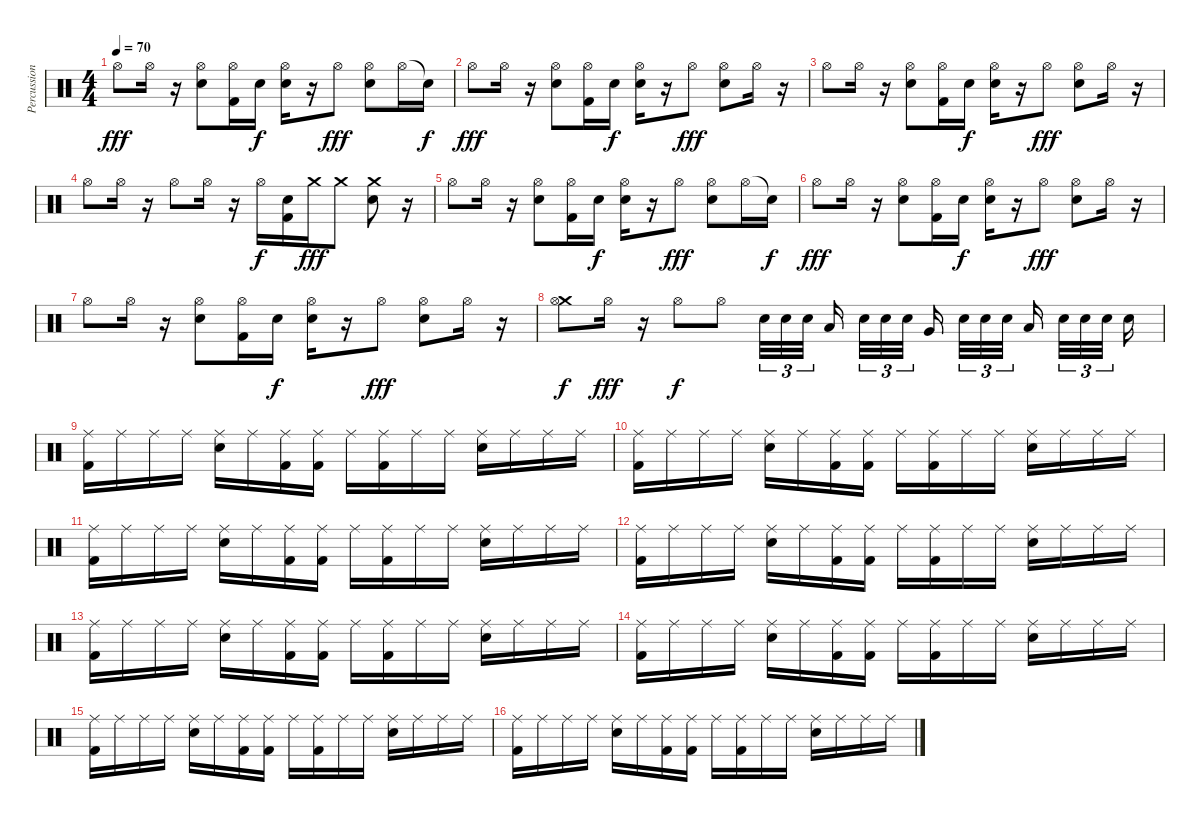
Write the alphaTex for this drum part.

\track ("Percussion" "Percussion") {instrument percussion}
\staff {score}
\articulation defaults
\ts (4 4)
\tempo 70
\clef neutral
\ks c "Hi-Hat (open)".8{dy fff} "Hi-Hat (open)".16
r.16 ("Hi-Hat (open)" "Electric Snare (hit)").8 ("Hi-Hat (open)" "Kick (hit) 2").16 "Electric Snare (hit)".16{dy f} ("Hi-Hat (open)" "Electric Snare (hit)").16 r.16 "Hi-Hat (open)".8{dy fff} ("Hi-Hat (open)" "Electric Snare (hit)").8 "Hi-Hat (open)".16 "Snare (hit)"{t}.16{dy f} |
"Hi-Hat (open)".8{dy fff} "Hi-Hat (open)".16 r.16 ("Hi-Hat (open)" "Electric Snare (hit)").8 ("Hi-Hat (open)" "Kick (hit) 2").16 "Electric Snare (hit)".16{dy f} ("Hi-Hat (open)" "Electric Snare (hit)").16 r.16 "Hi-Hat (open)".8{dy fff} ("Hi-Hat (open)" "Electric Snare (hit)").8 "Hi-Hat (open)".16 r.16 |
"Hi-Hat (open)".8 "Hi-Hat (open)".16 r.16 ("Hi-Hat (open)" "Electric Snare (hit)").8 ("Hi-Hat (open)" "Kick (hit) 2").16 "Electric Snare (hit)".16{dy f} ("Hi-Hat (open)" "Electric Snare (hit)").16 r.16 "Hi-Hat (open)".8{dy fff} ("Hi-Hat (open)" "Electric Snare (hit)").8 "Hi-Hat (open)".16 r.16 |
"Hi-Hat (open)".8 "Hi-Hat (open)".16 r.16 "Hi-Hat (open)".8 "Hi-Hat (open)".16 r.16 "Hi-Hat (open)".16{dy f} ("Electric Snare (hit)" "Kick (hit) 2").16 "Crash medium (hit)".16{dy fff} "Crash medium (hit)".8 ("Crash medium (hit)" "Electric Snare (hit)").8 r.16 |
"Hi-Hat (open)".8 "Hi-Hat (open)".16 r.16 ("Hi-Hat (open)" "Electric Snare (hit)").8 ("Hi-Hat (open)" "Kick (hit) 2").16 "Electric Snare (hit)".16{dy f} ("Hi-Hat (open)" "Electric Snare (hit)").16 r.16 "Hi-Hat (open)".8{dy fff} ("Hi-Hat (open)" "Electric Snare (hit)").8 "Hi-Hat (open)".16 "Snare (hit)"{t}.16{dy f} |
"Hi-Hat (open)".8{dy fff} "Hi-Hat (open)".16 r.16 ("Hi-Hat (open)" "Electric Snare (hit)").8 ("Hi-Hat (open)" "Kick (hit) 2").16 "Electric Snare (hit)".16{dy f} ("Hi-Hat (open)" "Electric Snare (hit)").16 r.16 "Hi-Hat (open)".8{dy fff} ("Hi-Hat (open)" "Electric Snare (hit)").8 "Hi-Hat (open)".16 r.16 |
"Hi-Hat (open)".8 "Hi-Hat (open)".16 r.16 ("Hi-Hat (open)" "Electric Snare (hit)").8 ("Hi-Hat (open)" "Kick (hit) 2").16 "Electric Snare (hit)".16{dy f} ("Hi-Hat (open)" "Electric Snare (hit)").16 r.16 "Hi-Hat (open)".8{dy fff} ("Hi-Hat (open)" "Electric Snare (hit)").8 "Hi-Hat (open)".16 r.16 |
("Crash medium (hit)" "Hi-Hat (open)").8{dy f} "Hi-Hat (open)".16{dy fff} r.16 "Hi-Hat (open)".8{dy f} "Hi-Hat (open)".8 "Electric Snare (hit)".32{tu (3 2)} "Electric Snare (hit)".32{tu (3 2)} "Electric Snare (hit)".32{tu (3 2) beam splitsecondary} "Low Tom (hit)".16{beam splitsecondary} "Electric Snare (hit)".32{tu (3 2)} "Electric Snare (hit)".32{tu (3 2)} "Electric Snare (hit)".32{tu (3 2) beam splitsecondary} "Very Low Tom (hit)".16 "Electric Snare (hit)".32{tu (3 2)} "Electric Snare (hit)".32{tu (3 2)} "Electric Snare (hit)".32{tu (3 2) beam splitsecondary} "Low Tom (hit)".16{beam splitsecondary} "Electric Snare (hit)".32{tu (3 2)} "Electric Snare (hit)".32{tu (3 2)} "Electric Snare (hit)".32{tu (3 2) beam splitsecondary} "Electric Snare (hit)".16 |
("Ride (middle)" "Kick (hit) 2").16 "Ride (middle)".16 "Ride (middle)".16 "Ride (middle)".16 ("Ride (middle)" "Electric Snare (hit)").16 "Ride (middle)".16 ("Ride (middle)" "Kick (hit) 2").16 ("Ride (middle)" "Kick (hit) 2").16 "Ride (middle)".16 ("Ride (middle)" "Kick (hit) 2").16 "Ride (middle)".16 "Ride (middle)".16 ("Ride (middle)" "Electric Snare (hit)").16 "Ride (middle)".16 "Ride (middle)".16 "Ride (middle)".16 |
("Ride (middle)" "Kick (hit) 2").16 "Ride (middle)".16 "Ride (middle)".16 "Ride (middle)".16 ("Ride (middle)" "Electric Snare (hit)").16 "Ride (middle)".16 ("Ride (middle)" "Kick (hit) 2").16 ("Ride (middle)" "Kick (hit) 2").16 "Ride (middle)".16 ("Ride (middle)" "Kick (hit) 2").16 "Ride (middle)".16 "Ride (middle)".16 ("Ride (middle)" "Electric Snare (hit)").16 "Ride (middle)".16 "Ride (middle)".16 "Ride (middle)".16 |
("Ride (middle)" "Kick (hit) 2").16 "Ride (middle)".16 "Ride (middle)".16 "Ride (middle)".16 ("Ride (middle)" "Electric Snare (hit)").16 "Ride (middle)".16 ("Ride (middle)" "Kick (hit) 2").16 ("Ride (middle)" "Kick (hit) 2").16 "Ride (middle)".16 ("Ride (middle)" "Kick (hit) 2").16 "Ride (middle)".16 "Ride (middle)".16 ("Ride (middle)" "Electric Snare (hit)").16 "Ride (middle)".16 "Ride (middle)".16 "Ride (middle)".16 |
("Ride (middle)" "Kick (hit) 2").16 "Ride (middle)".16 "Ride (middle)".16 "Ride (middle)".16 ("Ride (middle)" "Electric Snare (hit)").16 "Ride (middle)".16 ("Ride (middle)" "Kick (hit) 2").16 ("Ride (middle)" "Kick (hit) 2").16 "Ride (middle)".16 ("Ride (middle)" "Kick (hit) 2").16 "Ride (middle)".16 "Ride (middle)".16 ("Ride (middle)" "Electric Snare (hit)").16 "Ride (middle)".16 "Ride (middle)".16 "Ride (middle)".16 |
("Ride (middle)" "Kick (hit) 2").16 "Ride (middle)".16 "Ride (middle)".16 "Ride (middle)".16 ("Ride (middle)" "Electric Snare (hit)").16 "Ride (middle)".16 ("Ride (middle)" "Kick (hit) 2").16 ("Ride (middle)" "Kick (hit) 2").16 "Ride (middle)".16 ("Ride (middle)" "Kick (hit) 2").16 "Ride (middle)".16 "Ride (middle)".16 ("Ride (middle)" "Electric Snare (hit)").16 "Ride (middle)".16 "Ride (middle)".16 "Ride (middle)".16 |
("Ride (middle)" "Kick (hit) 2").16 "Ride (middle)".16 "Ride (middle)".16 "Ride (middle)".16 ("Ride (middle)" "Electric Snare (hit)").16 "Ride (middle)".16 ("Ride (middle)" "Kick (hit) 2").16 ("Ride (middle)" "Kick (hit) 2").16 "Ride (middle)".16 ("Ride (middle)" "Kick (hit) 2").16 "Ride (middle)".16 "Ride (middle)".16 ("Ride (middle)" "Electric Snare (hit)").16 "Ride (middle)".16 "Ride (middle)".16 "Ride (middle)".16 |
("Ride (middle)" "Kick (hit) 2").16 "Ride (middle)".16 "Ride (middle)".16 "Ride (middle)".16 ("Ride (middle)" "Electric Snare (hit)").16 "Ride (middle)".16 ("Ride (middle)" "Kick (hit) 2").16 ("Ride (middle)" "Kick (hit) 2").16 "Ride (middle)".16 ("Ride (middle)" "Kick (hit) 2").16 "Ride (middle)".16 "Ride (middle)".16 ("Ride (middle)" "Electric Snare (hit)").16 "Ride (middle)".16 "Ride (middle)".16 "Ride (middle)".16 |
("Ride (middle)" "Kick (hit) 2").16 "Ride (middle)".16 "Ride (middle)".16 "Ride (middle)".16 ("Ride (middle)" "Electric Snare (hit)").16 "Ride (middle)".16 ("Ride (middle)" "Kick (hit) 2").16 ("Ride (middle)" "Kick (hit) 2").16 "Ride (middle)".16 ("Ride (middle)" "Kick (hit) 2").16 "Ride (middle)".16 "Ride (middle)".16 ("Ride (middle)" "Electric Snare (hit)").16 "Ride (middle)".16 "Ride (middle)".16 "Ride (middle)".16
